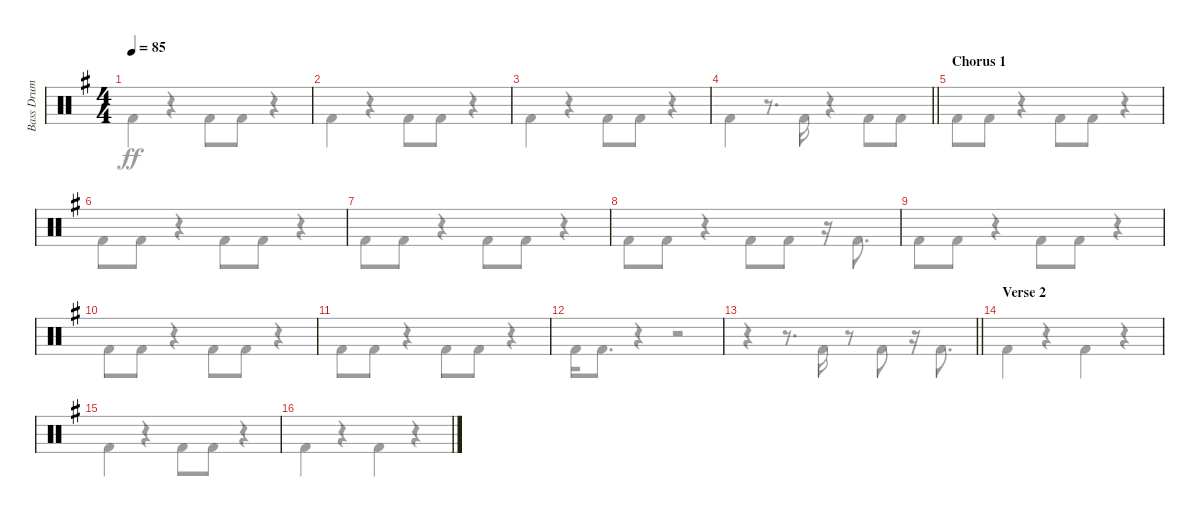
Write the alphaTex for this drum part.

\track ("Bass Drum" "Bass Drum") {instrument percussion}
\staff {score}
\articulation defaults
\voice
\ts (4 4)
\tempo 85
\clef neutral
\ks g
|
|
|
\barLineRight lightlight
|
\section ("" "Chorus 1")
|
|
|
|
|
|
|
|
\barLineRight lightlight
|
\section ("" "Verse 2")
|
|
\voice
\clef neutral
\ks g "Kick (hit) 2".4{dy ff}
r.4 "Kick (hit) 2".8 "Kick (hit) 2".8 r.4 |
"Kick (hit) 2".4 r.4 "Kick (hit) 2".8 "Kick (hit) 2".8 r.4 |
"Kick (hit) 2".4 r.4 "Kick (hit) 2".8 "Kick (hit) 2".8 r.4 |
\barLineRight lightlight "Kick (hit) 2".4
r.8{d} "Kick (hit) 2".16 r.4 "Kick (hit) 2".8 "Kick (hit) 2".8 |
"Kick (hit) 2".8 "Kick (hit) 2".8 r.4 "Kick (hit) 2".8 "Kick (hit) 2".8 r.4 |
"Kick (hit) 2".8 "Kick (hit) 2".8 r.4 "Kick (hit) 2".8 "Kick (hit) 2".8 r.4 |
"Kick (hit) 2".8 "Kick (hit) 2".8 r.4 "Kick (hit) 2".8 "Kick (hit) 2".8 r.4 |
"Kick (hit) 2".8 "Kick (hit) 2".8 r.4 "Kick (hit) 2".8 "Kick (hit) 2".8 r.16 "Kick (hit) 2".8{d} |
"Kick (hit) 2".8 "Kick (hit) 2".8 r.4 "Kick (hit) 2".8 "Kick (hit) 2".8 r.4 |
"Kick (hit) 2".8 "Kick (hit) 2".8 r.4 "Kick (hit) 2".8 "Kick (hit) 2".8 r.4 |
"Kick (hit) 2".8 "Kick (hit) 2".8 r.4 "Kick (hit) 2".8 "Kick (hit) 2".8 r.4 |
"Kick (hit) 2".16 "Kick (hit) 2".8{d} r.4 r.2 |
\barLineRight lightlight
r.4 r.8{d} "Kick (hit) 2".16 r.8 "Kick (hit) 2".8 r.16 "Kick (hit) 2".8{d} |
"Kick (hit) 2".4 r.4 "Kick (hit) 2".4 r.4 |
"Kick (hit) 2".4 r.4 "Kick (hit) 2".8 "Kick (hit) 2".8 r.4 |
"Kick (hit) 2".4 r.4 "Kick (hit) 2".4 r.4
